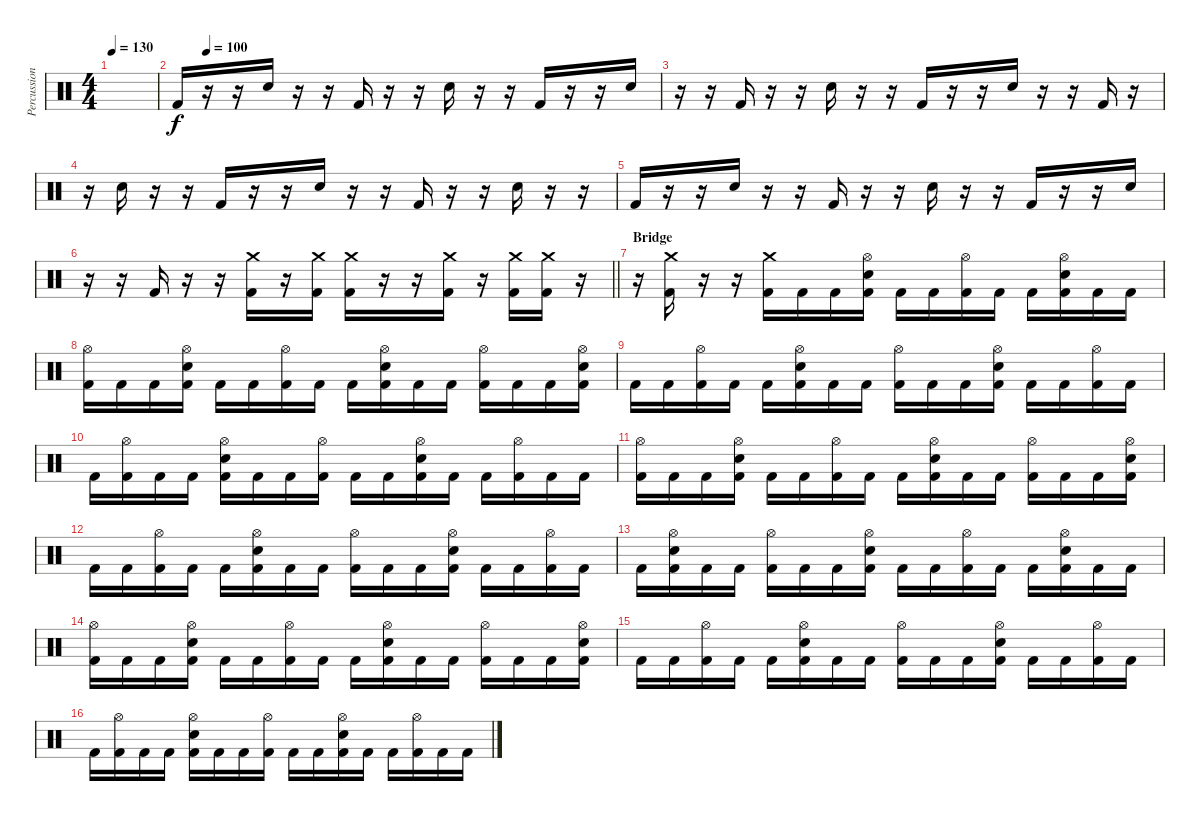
\track ("Percussion" "Percussion") {instrument percussion}
\staff {score}
\articulation defaults
\ts (4 4)
\tempo 130
\clef neutral
\ks c
|
\tempo (100 0.0625)
"Kick (hit) 2".16 r.16 r.16 "Snare (hit) 2".16 r.16 r.16 "Kick (hit) 2".16 r.16 r.16 "Snare (hit) 2".16 r.16 r.16 "Kick (hit) 2".16 r.16 r.16 "Snare (hit) 2".16 |
r.16 r.16 "Kick (hit) 2".16 r.16 r.16 "Snare (hit) 2".16 r.16 r.16 "Kick (hit) 2".16 r.16 r.16 "Snare (hit) 2".16 r.16 r.16 "Kick (hit) 2".16 r.16 |
r.16 "Snare (hit) 2".16 r.16 r.16 "Kick (hit) 2".16 r.16 r.16 "Snare (hit) 2".16 r.16 r.16 "Kick (hit) 2".16 r.16 r.16 "Snare (hit) 2".16 r.16 r.16 |
"Kick (hit) 2".16 r.16 r.16 "Snare (hit) 2".16 r.16 r.16 "Kick (hit) 2".16 r.16 r.16 "Snare (hit) 2".16 r.16 r.16 "Kick (hit) 2".16 r.16 r.16 "Snare (hit) 2".16 |
\barLineRight lightlight
r.16 r.16 "Kick (hit) 2".16 r.16 r.16 ("Crash medium (hit)" "Kick (hit) 2").16 r.16 ("Crash medium (hit)" "Kick (hit) 2").16 ("Crash medium (hit)" "Kick (hit) 2").16 r.16 r.16 ("Crash medium (hit)" "Kick (hit) 2").16 r.16 ("Crash medium (hit)" "Kick (hit) 2").16 ("Crash medium (hit)" "Kick (hit) 2").16 r.16 |
\section ("" "Bridge")
r.16 ("Crash medium (hit)" "Kick (hit) 2").16 r.16 r.16 ("Crash medium (hit)" "Kick (hit) 2").16 "Kick (hit) 2".16 "Kick (hit) 2".16 ("Hi-Hat (open)" "Snare (hit) 2" "Kick (hit) 2").16 "Kick (hit) 2".16 "Kick (hit) 2".16 ("Hi-Hat (open)" "Kick (hit) 2").16 "Kick (hit) 2".16 "Kick (hit) 2".16 ("Hi-Hat (open)" "Snare (hit) 2" "Kick (hit) 2").16 "Kick (hit) 2".16 "Kick (hit) 2".16 |
("Hi-Hat (open)" "Kick (hit) 2").16 "Kick (hit) 2".16 "Kick (hit) 2".16 ("Hi-Hat (open)" "Snare (hit) 2" "Kick (hit) 2").16 "Kick (hit) 2".16 "Kick (hit) 2".16 ("Hi-Hat (open)" "Kick (hit) 2").16 "Kick (hit) 2".16 "Kick (hit) 2".16 ("Hi-Hat (open)" "Snare (hit) 2" "Kick (hit) 2").16 "Kick (hit) 2".16 "Kick (hit) 2".16 ("Hi-Hat (open)" "Kick (hit) 2").16 "Kick (hit) 2".16 "Kick (hit) 2".16 ("Hi-Hat (open)" "Snare (hit) 2" "Kick (hit) 2").16 |
"Kick (hit) 2".16 "Kick (hit) 2".16 ("Hi-Hat (open)" "Kick (hit) 2").16 "Kick (hit) 2".16 "Kick (hit) 2".16 ("Hi-Hat (open)" "Snare (hit) 2" "Kick (hit) 2").16 "Kick (hit) 2".16 "Kick (hit) 2".16 ("Hi-Hat (open)" "Kick (hit) 2").16 "Kick (hit) 2".16 "Kick (hit) 2".16 ("Hi-Hat (open)" "Snare (hit) 2" "Kick (hit) 2").16 "Kick (hit) 2".16 "Kick (hit) 2".16 ("Hi-Hat (open)" "Kick (hit) 2").16 "Kick (hit) 2".16 |
"Kick (hit) 2".16 ("Hi-Hat (open)" "Kick (hit) 2").16 "Kick (hit) 2".16 "Kick (hit) 2".16 ("Hi-Hat (open)" "Snare (hit) 2" "Kick (hit) 2").16 "Kick (hit) 2".16 "Kick (hit) 2".16 ("Hi-Hat (open)" "Kick (hit) 2").16 "Kick (hit) 2".16 "Kick (hit) 2".16 ("Hi-Hat (open)" "Snare (hit) 2" "Kick (hit) 2").16 "Kick (hit) 2".16 "Kick (hit) 2".16 ("Hi-Hat (open)" "Kick (hit) 2").16 "Kick (hit) 2".16 "Kick (hit) 2".16 |
("Hi-Hat (open)" "Kick (hit) 2").16 "Kick (hit) 2".16 "Kick (hit) 2".16 ("Hi-Hat (open)" "Snare (hit) 2" "Kick (hit) 2").16 "Kick (hit) 2".16 "Kick (hit) 2".16 ("Hi-Hat (open)" "Kick (hit) 2").16 "Kick (hit) 2".16 "Kick (hit) 2".16 ("Hi-Hat (open)" "Snare (hit) 2" "Kick (hit) 2").16 "Kick (hit) 2".16 "Kick (hit) 2".16 ("Hi-Hat (open)" "Kick (hit) 2").16 "Kick (hit) 2".16 "Kick (hit) 2".16 ("Hi-Hat (open)" "Snare (hit) 2" "Kick (hit) 2").16 |
"Kick (hit) 2".16 "Kick (hit) 2".16 ("Hi-Hat (open)" "Kick (hit) 2").16 "Kick (hit) 2".16 "Kick (hit) 2".16 ("Hi-Hat (open)" "Snare (hit) 2" "Kick (hit) 2").16 "Kick (hit) 2".16 "Kick (hit) 2".16 ("Hi-Hat (open)" "Kick (hit) 2").16 "Kick (hit) 2".16 "Kick (hit) 2".16 ("Hi-Hat (open)" "Snare (hit) 2" "Kick (hit) 2").16 "Kick (hit) 2".16 "Kick (hit) 2".16 ("Hi-Hat (open)" "Kick (hit) 2").16 "Kick (hit) 2".16 |
"Kick (hit) 2".16 ("Hi-Hat (open)" "Snare (hit) 2" "Kick (hit) 2").16 "Kick (hit) 2".16 "Kick (hit) 2".16 ("Hi-Hat (open)" "Kick (hit) 2").16 "Kick (hit) 2".16 "Kick (hit) 2".16 ("Hi-Hat (open)" "Snare (hit) 2" "Kick (hit) 2").16 "Kick (hit) 2".16 "Kick (hit) 2".16 ("Hi-Hat (open)" "Kick (hit) 2").16 "Kick (hit) 2".16 "Kick (hit) 2".16 ("Hi-Hat (open)" "Snare (hit) 2" "Kick (hit) 2").16 "Kick (hit) 2".16 "Kick (hit) 2".16 |
("Hi-Hat (open)" "Kick (hit) 2").16 "Kick (hit) 2".16 "Kick (hit) 2".16 ("Hi-Hat (open)" "Snare (hit) 2" "Kick (hit) 2").16 "Kick (hit) 2".16 "Kick (hit) 2".16 ("Hi-Hat (open)" "Kick (hit) 2").16 "Kick (hit) 2".16 "Kick (hit) 2".16 ("Hi-Hat (open)" "Snare (hit) 2" "Kick (hit) 2").16 "Kick (hit) 2".16 "Kick (hit) 2".16 ("Hi-Hat (open)" "Kick (hit) 2").16 "Kick (hit) 2".16 "Kick (hit) 2".16 ("Hi-Hat (open)" "Snare (hit) 2" "Kick (hit) 2").16 |
"Kick (hit) 2".16 "Kick (hit) 2".16 ("Hi-Hat (open)" "Kick (hit) 2").16 "Kick (hit) 2".16 "Kick (hit) 2".16 ("Hi-Hat (open)" "Snare (hit) 2" "Kick (hit) 2").16 "Kick (hit) 2".16 "Kick (hit) 2".16 ("Hi-Hat (open)" "Kick (hit) 2").16 "Kick (hit) 2".16 "Kick (hit) 2".16 ("Hi-Hat (open)" "Snare (hit) 2" "Kick (hit) 2").16 "Kick (hit) 2".16 "Kick (hit) 2".16 ("Hi-Hat (open)" "Kick (hit) 2").16 "Kick (hit) 2".16 |
"Kick (hit) 2".16 ("Hi-Hat (open)" "Kick (hit) 2").16 "Kick (hit) 2".16 "Kick (hit) 2".16 ("Hi-Hat (open)" "Snare (hit) 2" "Kick (hit) 2").16 "Kick (hit) 2".16 "Kick (hit) 2".16 ("Hi-Hat (open)" "Kick (hit) 2").16 "Kick (hit) 2".16 "Kick (hit) 2".16 ("Hi-Hat (open)" "Snare (hit) 2" "Kick (hit) 2").16 "Kick (hit) 2".16 "Kick (hit) 2".16 ("Hi-Hat (open)" "Kick (hit) 2").16 "Kick (hit) 2".16 "Kick (hit) 2".16
